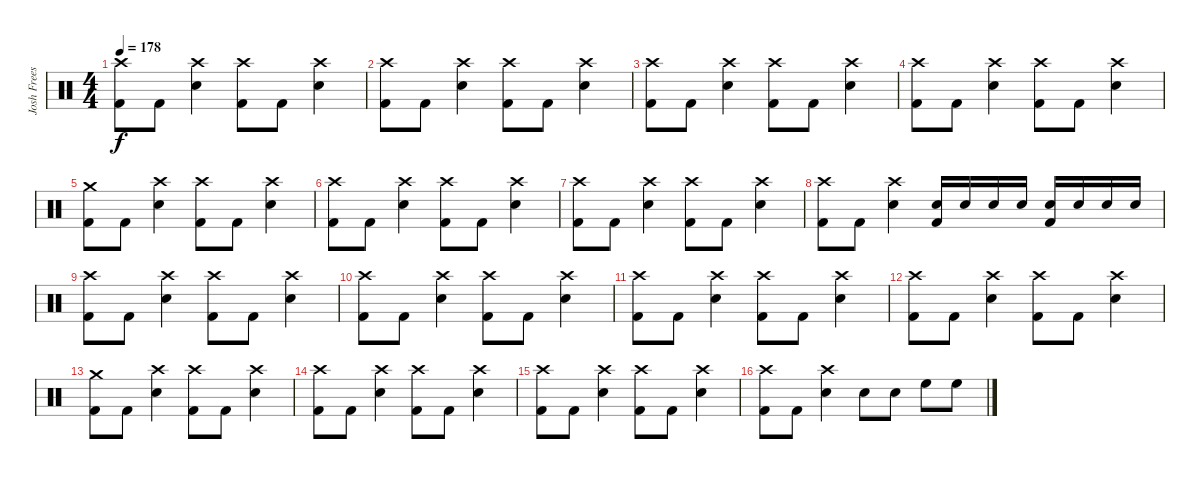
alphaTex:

\track ("Josh Freese" "Josh Frees") {instrument percussion}
\staff {score}
\articulation defaults
\ts (4 4)
\tempo 178
\clef neutral
\ks c
("Crash high (hit)" "Kick (hit) 2").8{dy f} "Kick (hit) 2".8 ("Crash high (hit)" "Electric Snare (hit)").4 ("Crash high (hit)" "Kick (hit) 2").8 "Kick (hit) 2".8 ("Crash high (hit)" "Electric Snare (hit)").4 |
("Crash high (hit)" "Kick (hit) 2").8 "Kick (hit) 2".8 ("Crash high (hit)" "Electric Snare (hit)").4 ("Crash high (hit)" "Kick (hit) 2").8 "Kick (hit) 2".8 ("Crash high (hit)" "Electric Snare (hit)").4 |
("Crash high (hit)" "Kick (hit) 2").8 "Kick (hit) 2".8 ("Crash high (hit)" "Electric Snare (hit)").4 ("Crash high (hit)" "Kick (hit) 2").8 "Kick (hit) 2".8 ("Crash high (hit)" "Electric Snare (hit)").4 |
("Crash high (hit)" "Kick (hit) 2").8 "Kick (hit) 2".8 ("Crash high (hit)" "Electric Snare (hit)").4 ("Crash high (hit)" "Kick (hit) 2").8 "Kick (hit) 2".8 ("Crash high (hit)" "Electric Snare (hit)").4 |
("Crash medium (hit)" "Kick (hit) 2").8 "Kick (hit) 2".8 ("Crash high (hit)" "Electric Snare (hit)").4 ("Crash high (hit)" "Kick (hit) 2").8 "Kick (hit) 2".8 ("Crash high (hit)" "Electric Snare (hit)").4 |
("Crash high (hit)" "Kick (hit) 2").8 "Kick (hit) 2".8 ("Crash high (hit)" "Electric Snare (hit)").4 ("Crash high (hit)" "Kick (hit) 2").8 "Kick (hit) 2".8 ("Crash high (hit)" "Electric Snare (hit)").4 |
("Crash high (hit)" "Kick (hit) 2").8 "Kick (hit) 2".8 ("Crash high (hit)" "Electric Snare (hit)").4 ("Crash high (hit)" "Kick (hit) 2").8 "Kick (hit) 2".8 ("Crash high (hit)" "Electric Snare (hit)").4 |
("Crash high (hit)" "Kick (hit) 2").8 "Kick (hit) 2".8 ("Crash high (hit)" "Electric Snare (hit)").4 ("Electric Snare (hit)" "Kick (hit) 2").16 "Electric Snare (hit)".16 "Electric Snare (hit)".16 "Electric Snare (hit)".16 ("Electric Snare (hit)" "Kick (hit) 2").16 "Electric Snare (hit)".16 "Electric Snare (hit)".16 "Electric Snare (hit)".16 |
("Crash high (hit)" "Kick (hit) 2").8 "Kick (hit) 2".8 ("Crash high (hit)" "Electric Snare (hit)").4 ("Crash high (hit)" "Kick (hit) 2").8 "Kick (hit) 2".8 ("Crash high (hit)" "Electric Snare (hit)").4 |
("Crash high (hit)" "Kick (hit) 2").8 "Kick (hit) 2".8 ("Crash high (hit)" "Electric Snare (hit)").4 ("Crash high (hit)" "Kick (hit) 2").8 "Kick (hit) 2".8 ("Crash high (hit)" "Electric Snare (hit)").4 |
("Crash high (hit)" "Kick (hit) 2").8 "Kick (hit) 2".8 ("Crash high (hit)" "Electric Snare (hit)").4 ("Crash high (hit)" "Kick (hit) 2").8 "Kick (hit) 2".8 ("Crash high (hit)" "Electric Snare (hit)").4 |
("Crash high (hit)" "Kick (hit) 2").8 "Kick (hit) 2".8 ("Crash high (hit)" "Electric Snare (hit)").4 ("Crash high (hit)" "Kick (hit) 2").8 "Kick (hit) 2".8 ("Crash high (hit)" "Electric Snare (hit)").4 |
("Crash medium (hit)" "Kick (hit) 2").8 "Kick (hit) 2".8 ("Crash high (hit)" "Electric Snare (hit)").4 ("Crash high (hit)" "Kick (hit) 2").8 "Kick (hit) 2".8 ("Crash high (hit)" "Electric Snare (hit)").4 |
("Crash high (hit)" "Kick (hit) 2").8 "Kick (hit) 2".8 ("Crash high (hit)" "Electric Snare (hit)").4 ("Crash high (hit)" "Kick (hit) 2").8 "Kick (hit) 2".8 ("Crash high (hit)" "Electric Snare (hit)").4 |
("Crash high (hit)" "Kick (hit) 2").8 "Kick (hit) 2".8 ("Crash high (hit)" "Electric Snare (hit)").4 ("Crash high (hit)" "Kick (hit) 2").8 "Kick (hit) 2".8 ("Crash high (hit)" "Electric Snare (hit)").4 |
("Crash high (hit)" "Kick (hit) 2").8 "Kick (hit) 2".8 ("Crash high (hit)" "Electric Snare (hit)").4 "Electric Snare (hit)".8 "Electric Snare (hit)".8 "High Floor Tom (hit)".8 "High Floor Tom (hit)".8
